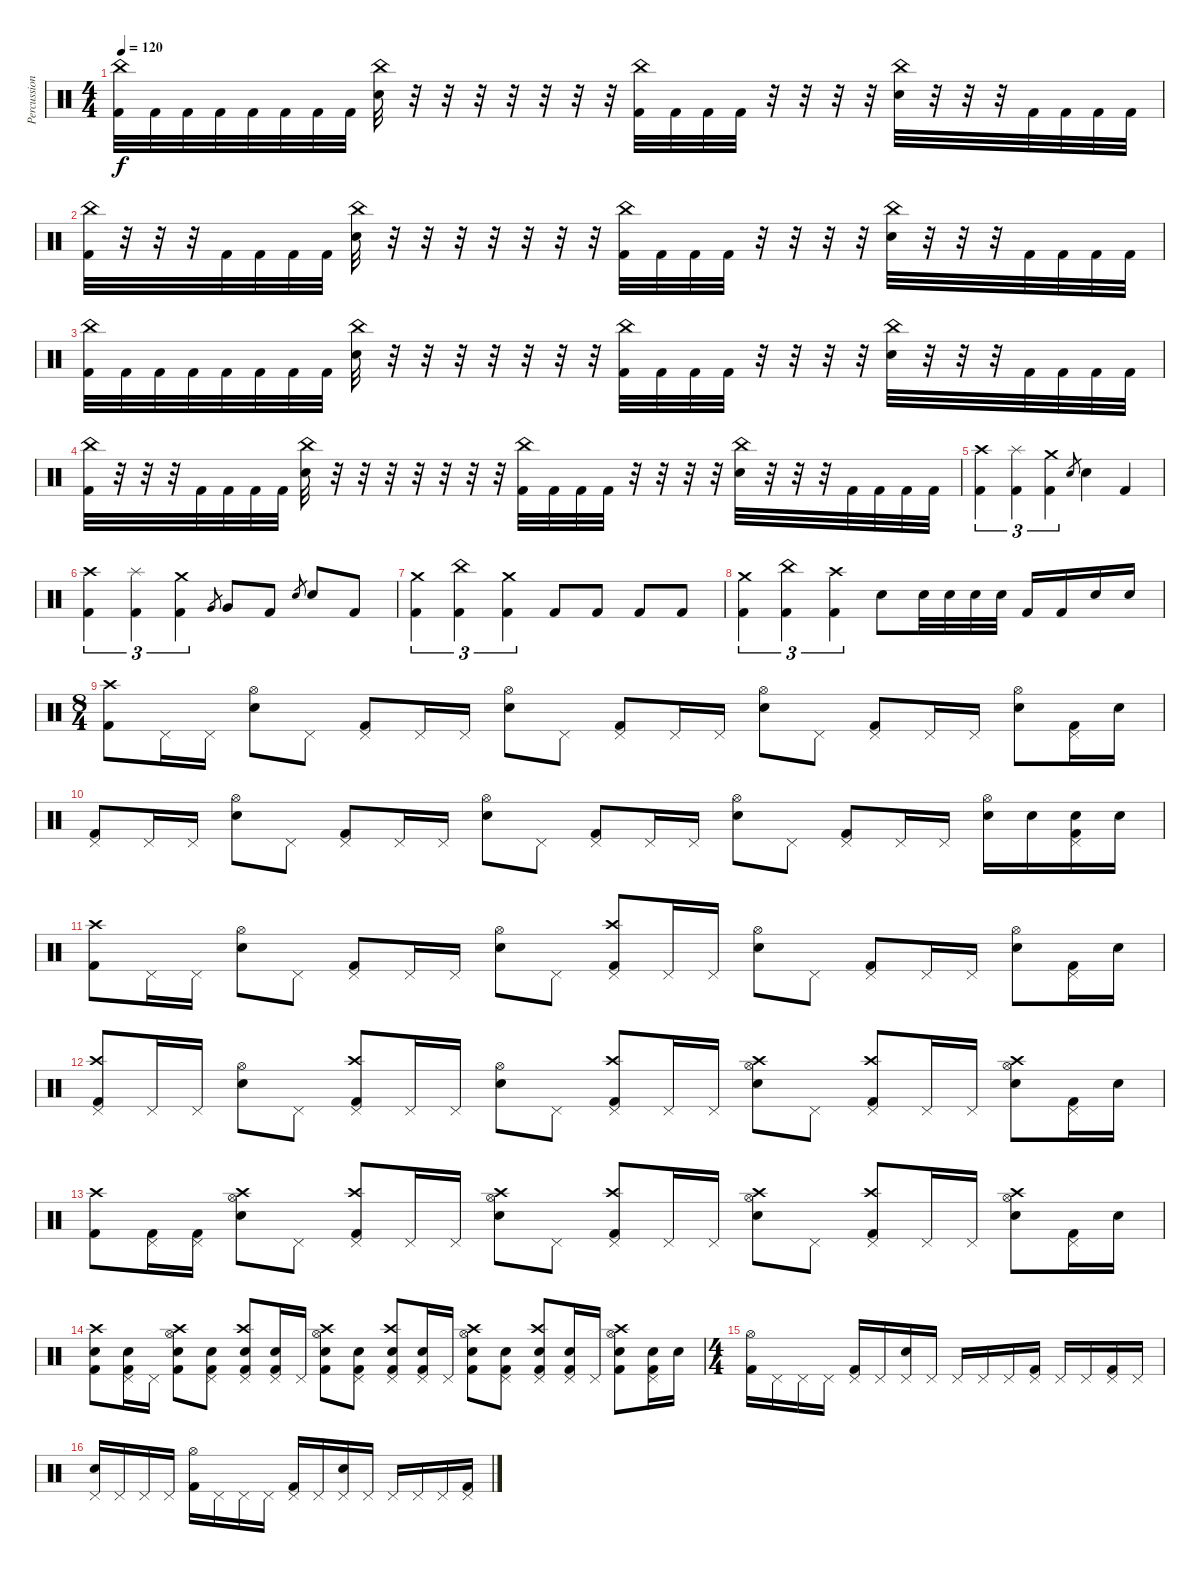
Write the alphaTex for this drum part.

\track ("Percussion" "Percussion") {instrument percussion}
\staff {score}
\articulation defaults
\ts (4 4)
\tempo 120
\clef neutral
\ks c
("China (hit)" "Kick (hit) 2").32{dy f} "Kick (hit) 2".32 "Kick (hit) 2".32 "Kick (hit) 2".32 "Kick (hit) 2".32 "Kick (hit) 2".32 "Kick (hit) 2".32 "Kick (hit) 2".32 ("China (hit)" "Electric Snare (hit)").32 r.32 r.32 r.32 r.32 r.32 r.32 r.32 ("China (hit)" "Kick (hit) 2").32 "Kick (hit) 2".32 "Kick (hit) 2".32 "Kick (hit) 2".32 r.32 r.32 r.32 r.32 ("China (hit)" "Electric Snare (hit)").32 r.32 r.32 r.32 "Kick (hit) 2".32 "Kick (hit) 2".32 "Kick (hit) 2".32 "Kick (hit) 2".32 |
("China (hit)" "Kick (hit) 2").32 r.32 r.32 r.32 "Kick (hit) 2".32 "Kick (hit) 2".32 "Kick (hit) 2".32 "Kick (hit) 2".32 ("China (hit)" "Electric Snare (hit)").32 r.32 r.32 r.32 r.32 r.32 r.32 r.32 ("China (hit)" "Kick (hit) 2").32 "Kick (hit) 2".32 "Kick (hit) 2".32 "Kick (hit) 2".32 r.32 r.32 r.32 r.32 ("China (hit)" "Electric Snare (hit)").32 r.32 r.32 r.32 "Kick (hit) 2".32 "Kick (hit) 2".32 "Kick (hit) 2".32 "Kick (hit) 2".32 |
("China (hit)" "Kick (hit) 2").32 "Kick (hit) 2".32 "Kick (hit) 2".32 "Kick (hit) 2".32 "Kick (hit) 2".32 "Kick (hit) 2".32 "Kick (hit) 2".32 "Kick (hit) 2".32 ("China (hit)" "Electric Snare (hit)").32 r.32 r.32 r.32 r.32 r.32 r.32 r.32 ("China (hit)" "Kick (hit) 2").32 "Kick (hit) 2".32 "Kick (hit) 2".32 "Kick (hit) 2".32 r.32 r.32 r.32 r.32 ("China (hit)" "Electric Snare (hit)").32 r.32 r.32 r.32 "Kick (hit) 2".32 "Kick (hit) 2".32 "Kick (hit) 2".32 "Kick (hit) 2".32 |
("China (hit)" "Kick (hit) 2").32 r.32 r.32 r.32 "Kick (hit) 2".32 "Kick (hit) 2".32 "Kick (hit) 2".32 "Kick (hit) 2".32 ("China (hit)" "Electric Snare (hit)").32 r.32 r.32 r.32 r.32 r.32 r.32 r.32 ("China (hit)" "Kick (hit) 2").32 "Kick (hit) 2".32 "Kick (hit) 2".32 "Kick (hit) 2".32 r.32 r.32 r.32 r.32 ("China (hit)" "Electric Snare (hit)").32 r.32 r.32 r.32 "Kick (hit) 2".32 "Kick (hit) 2".32 "Kick (hit) 2".32 "Kick (hit) 2".32 |
("Crash high (hit)" "Kick (hit) 2").4{tu (3 2)} ("Splash (hit)" "Kick (hit) 2").4{tu (3 2)} ("Crash medium (hit)" "Kick (hit) 2").4{tu (3 2)} "Electric Snare (hit)".8{gr} "Electric Snare (hit)".4 "Kick (hit) 2".4 |
("Crash high (hit)" "Kick (hit) 2").4{tu (3 2)} ("Splash (hit)" "Kick (hit) 2").4{tu (3 2)} ("Crash medium (hit)" "Kick (hit) 2").4{tu (3 2)} "Very Low Tom (hit)".8{gr} "Very Low Tom (hit)".8 "Kick (hit) 2".8 "Electric Snare (hit)".8{gr} "Electric Snare (hit)".8 "Kick (hit) 2".8 |
("Crash medium (hit)" "Kick (hit) 2").4{tu (3 2)} ("China (hit)" "Kick (hit) 2").4{tu (3 2)} ("Crash medium (hit)" "Kick (hit) 2").4{tu (3 2)} "Kick (hit) 2".8 "Kick (hit) 2".8 "Kick (hit) 2".8 "Kick (hit) 2".8 |
("Crash medium (hit)" "Kick (hit) 2").4{tu (3 2)} ("China (hit)" "Kick (hit) 2").4{tu (3 2)} ("Crash high (hit)" "Kick (hit) 2").4{tu (3 2)} "Electric Snare (hit)".8 "Electric Snare (hit)".32 "Electric Snare (hit)".32 "Electric Snare (hit)".32 "Electric Snare (hit)".32 "Kick (hit) 2".16 "Kick (hit) 2".16 "Electric Snare (hit)".16 "Electric Snare (hit)".16 |
\ts (8 4)
("Crash high (hit)" "Kick (hit) 2").8 "Pedal Hi-Hat (hit)".16 "Pedal Hi-Hat (hit)".16 ("Hi-Hat (open)" "Electric Snare (hit)").8 "Pedal Hi-Hat (hit)".8 ("Pedal Hi-Hat (hit)" "Kick (hit) 2").8 "Pedal Hi-Hat (hit)".16 "Pedal Hi-Hat (hit)".16 ("Hi-Hat (open)" "Electric Snare (hit)").8 "Pedal Hi-Hat (hit)".8 ("Pedal Hi-Hat (hit)" "Kick (hit) 2").8 "Pedal Hi-Hat (hit)".16 "Pedal Hi-Hat (hit)".16 ("Hi-Hat (open)" "Electric Snare (hit)").8 "Pedal Hi-Hat (hit)".8 ("Pedal Hi-Hat (hit)" "Kick (hit) 2").8 "Pedal Hi-Hat (hit)".16 "Pedal Hi-Hat (hit)".16 ("Hi-Hat (open)" "Electric Snare (hit)").8 ("Pedal Hi-Hat (hit)" "Kick (hit) 2").16 "Electric Snare (hit)".16 |
("Pedal Hi-Hat (hit)" "Kick (hit) 2").8 "Pedal Hi-Hat (hit)".16 "Pedal Hi-Hat (hit)".16 ("Hi-Hat (open)" "Electric Snare (hit)").8 "Pedal Hi-Hat (hit)".8 ("Pedal Hi-Hat (hit)" "Kick (hit) 2").8 "Pedal Hi-Hat (hit)".16 "Pedal Hi-Hat (hit)".16 ("Hi-Hat (open)" "Electric Snare (hit)").8 "Pedal Hi-Hat (hit)".8 ("Pedal Hi-Hat (hit)" "Kick (hit) 2").8 "Pedal Hi-Hat (hit)".16 "Pedal Hi-Hat (hit)".16 ("Hi-Hat (open)" "Electric Snare (hit)").8 "Pedal Hi-Hat (hit)".8 ("Pedal Hi-Hat (hit)" "Kick (hit) 2").8 "Pedal Hi-Hat (hit)".16 "Pedal Hi-Hat (hit)".16 ("Hi-Hat (open)" "Electric Snare (hit)").16 "Electric Snare (hit)".16 ("Pedal Hi-Hat (hit)" "Electric Snare (hit)" "Kick (hit) 2").16 "Electric Snare (hit)".16 |
("Crash high (hit)" "Kick (hit) 2").8 "Pedal Hi-Hat (hit)".16 "Pedal Hi-Hat (hit)".16 ("Hi-Hat (open)" "Electric Snare (hit)").8 "Pedal Hi-Hat (hit)".8 ("Pedal Hi-Hat (hit)" "Kick (hit) 2").8 "Pedal Hi-Hat (hit)".16 "Pedal Hi-Hat (hit)".16 ("Hi-Hat (open)" "Electric Snare (hit)").8 "Pedal Hi-Hat (hit)".8 ("Crash high (hit)" "Pedal Hi-Hat (hit)" "Kick (hit) 2").8 "Pedal Hi-Hat (hit)".16 "Pedal Hi-Hat (hit)".16 ("Hi-Hat (open)" "Electric Snare (hit)").8 "Pedal Hi-Hat (hit)".8 ("Pedal Hi-Hat (hit)" "Kick (hit) 2").8 "Pedal Hi-Hat (hit)".16 "Pedal Hi-Hat (hit)".16 ("Hi-Hat (open)" "Electric Snare (hit)").8 ("Pedal Hi-Hat (hit)" "Kick (hit) 2").16 "Electric Snare (hit)".16 |
("Crash high (hit)" "Pedal Hi-Hat (hit)" "Kick (hit) 2").8 "Pedal Hi-Hat (hit)".16 "Pedal Hi-Hat (hit)".16 ("Hi-Hat (open)" "Electric Snare (hit)").8 "Pedal Hi-Hat (hit)".8 ("Crash high (hit)" "Pedal Hi-Hat (hit)" "Kick (hit) 2").8 "Pedal Hi-Hat (hit)".16 "Pedal Hi-Hat (hit)".16 ("Hi-Hat (open)" "Electric Snare (hit)").8 "Pedal Hi-Hat (hit)".8 ("Crash high (hit)" "Pedal Hi-Hat (hit)" "Kick (hit) 2").8 "Pedal Hi-Hat (hit)".16 "Pedal Hi-Hat (hit)".16 ("Crash high (hit)" "Hi-Hat (open)" "Electric Snare (hit)").8 "Pedal Hi-Hat (hit)".8 ("Crash high (hit)" "Pedal Hi-Hat (hit)" "Kick (hit) 2").8 "Pedal Hi-Hat (hit)".16 "Pedal Hi-Hat (hit)".16 ("Crash high (hit)" "Hi-Hat (open)" "Electric Snare (hit)").8 ("Pedal Hi-Hat (hit)" "Kick (hit) 2").16 "Electric Snare (hit)".16 |
("Crash high (hit)" "Kick (hit) 2").8 ("Pedal Hi-Hat (hit)" "Kick (hit) 2").16 ("Pedal Hi-Hat (hit)" "Kick (hit) 2").16 ("Crash high (hit)" "Hi-Hat (open)" "Electric Snare (hit)").8 "Pedal Hi-Hat (hit)".8 ("Crash high (hit)" "Pedal Hi-Hat (hit)" "Kick (hit) 2").8 "Pedal Hi-Hat (hit)".16 "Pedal Hi-Hat (hit)".16 ("Crash high (hit)" "Hi-Hat (open)" "Electric Snare (hit)").8 "Pedal Hi-Hat (hit)".8 ("Crash high (hit)" "Pedal Hi-Hat (hit)" "Kick (hit) 2").8 "Pedal Hi-Hat (hit)".16 "Pedal Hi-Hat (hit)".16 ("Crash high (hit)" "Hi-Hat (open)" "Electric Snare (hit)").8 "Pedal Hi-Hat (hit)".8 ("Crash high (hit)" "Pedal Hi-Hat (hit)" "Kick (hit) 2").8 "Pedal Hi-Hat (hit)".16 "Pedal Hi-Hat (hit)".16 ("Crash high (hit)" "Hi-Hat (open)" "Electric Snare (hit)").8 ("Pedal Hi-Hat (hit)" "Kick (hit) 2").16 "Electric Snare (hit)".16 |
("Crash high (hit)" "Electric Snare (hit)" "Kick (hit) 2").8 ("Pedal Hi-Hat (hit)" "Electric Snare (hit)" "Kick (hit) 2").16 "Pedal Hi-Hat (hit)".16 ("Crash high (hit)" "Hi-Hat (open)" "Electric Snare (hit)" "Kick (hit) 2").8 ("Pedal Hi-Hat (hit)" "Electric Snare (hit)" "Kick (hit) 2").8 ("Crash high (hit)" "Pedal Hi-Hat (hit)" "Electric Snare (hit)" "Kick (hit) 2").8 ("Pedal Hi-Hat (hit)" "Electric Snare (hit)" "Kick (hit) 2").16 "Pedal Hi-Hat (hit)".16 ("Crash high (hit)" "Hi-Hat (open)" "Electric Snare (hit)" "Kick (hit) 2").8 ("Pedal Hi-Hat (hit)" "Electric Snare (hit)" "Kick (hit) 2").8 ("Crash high (hit)" "Pedal Hi-Hat (hit)" "Electric Snare (hit)" "Kick (hit) 2").8 ("Pedal Hi-Hat (hit)" "Electric Snare (hit)" "Kick (hit) 2").16 "Pedal Hi-Hat (hit)".16 ("Crash high (hit)" "Hi-Hat (open)" "Electric Snare (hit)" "Kick (hit) 2").8 ("Pedal Hi-Hat (hit)" "Electric Snare (hit)" "Kick (hit) 2").8 ("Crash high (hit)" "Pedal Hi-Hat (hit)" "Electric Snare (hit)" "Kick (hit) 2").8 ("Pedal Hi-Hat (hit)" "Electric Snare (hit)" "Kick (hit) 2").16 "Pedal Hi-Hat (hit)".16 ("Crash high (hit)" "Hi-Hat (open)" "Electric Snare (hit)" "Kick (hit) 2").8 ("Pedal Hi-Hat (hit)" "Electric Snare (hit)" "Kick (hit) 2").16 "Electric Snare (hit)".16 |
\ts (4 4)
("Hi-Hat (open)" "Kick (hit) 2").16 "Pedal Hi-Hat (hit)".16 "Pedal Hi-Hat (hit)".16 "Pedal Hi-Hat (hit)".16 ("Pedal Hi-Hat (hit)" "Kick (hit) 2").16 "Pedal Hi-Hat (hit)".16 ("Pedal Hi-Hat (hit)" "Electric Snare (hit)").16 "Pedal Hi-Hat (hit)".16 "Pedal Hi-Hat (hit)".16 "Pedal Hi-Hat (hit)".16 "Pedal Hi-Hat (hit)".16 ("Pedal Hi-Hat (hit)" "Kick (hit) 2").16 "Pedal Hi-Hat (hit)".16 "Pedal Hi-Hat (hit)".16 ("Pedal Hi-Hat (hit)" "Kick (hit) 2").16 "Pedal Hi-Hat (hit)".16 |
("Pedal Hi-Hat (hit)" "Electric Snare (hit)").16 "Pedal Hi-Hat (hit)".16 "Pedal Hi-Hat (hit)".16 "Pedal Hi-Hat (hit)".16 ("Hi-Hat (open)" "Kick (hit) 2").16 "Pedal Hi-Hat (hit)".16 "Pedal Hi-Hat (hit)".16 "Pedal Hi-Hat (hit)".16 ("Pedal Hi-Hat (hit)" "Kick (hit) 2").16 "Pedal Hi-Hat (hit)".16 ("Pedal Hi-Hat (hit)" "Electric Snare (hit)").16 "Pedal Hi-Hat (hit)".16 "Pedal Hi-Hat (hit)".16 "Pedal Hi-Hat (hit)".16 "Pedal Hi-Hat (hit)".16 ("Pedal Hi-Hat (hit)" "Kick (hit) 2").16
